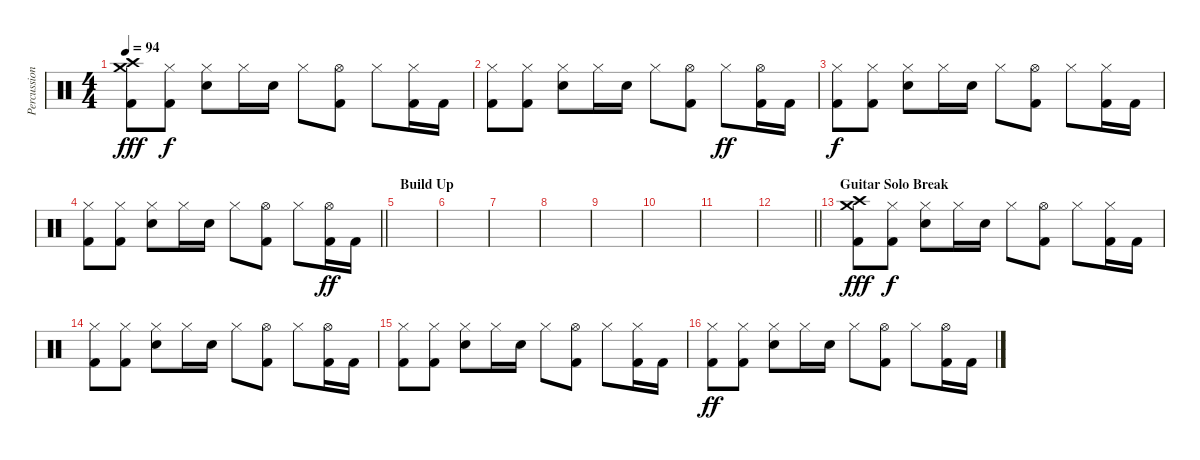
\track ("Percussion" "Percussion") {instrument percussion}
\staff {score}
\articulation defaults
\ts (4 4)
\tempo 94
\clef neutral
\ks c
("Crash high (hit)" "Crash medium (hit)" "Kick (hit) 2").8{dy fff} ("Hi-Hat (closed)" "Kick (hit) 2").8{dy f} ("Hi-Hat (closed)" "Snare (hit) 2").8 "Hi-Hat (closed)".16 "Snare (hit) 2".16 "Hi-Hat (closed)".8 ("Hi-Hat (open)" "Kick (hit) 2").8 "Hi-Hat (closed)".8 ("Hi-Hat (closed)" "Kick (hit) 2").16 "Kick (hit) 2".16 |
("Hi-Hat (closed)" "Kick (hit) 2").8 ("Hi-Hat (closed)" "Kick (hit) 2").8 ("Hi-Hat (closed)" "Snare (hit) 2").8 "Hi-Hat (closed)".16 "Snare (hit) 2".16 "Hi-Hat (closed)".8 ("Hi-Hat (open)" "Kick (hit) 2").8 "Hi-Hat (closed)".8{dy ff} ("Hi-Hat (open)" "Kick (hit) 2").16 "Kick (hit) 2".16 |
("Hi-Hat (closed)" "Kick (hit) 2").8{dy f} ("Hi-Hat (closed)" "Kick (hit) 2").8 ("Hi-Hat (closed)" "Snare (hit) 2").8 "Hi-Hat (closed)".16 "Snare (hit) 2".16 "Hi-Hat (closed)".8 ("Hi-Hat (open)" "Kick (hit) 2").8 "Hi-Hat (closed)".8 ("Hi-Hat (closed)" "Kick (hit) 2").16 "Kick (hit) 2".16 |
\barLineRight lightlight
("Hi-Hat (closed)" "Kick (hit) 2").8 ("Hi-Hat (closed)" "Kick (hit) 2").8 ("Hi-Hat (closed)" "Snare (hit) 2").8 "Hi-Hat (closed)".16 "Snare (hit) 2".16 "Hi-Hat (closed)".8 ("Hi-Hat (open)" "Kick (hit) 2").8 "Hi-Hat (closed)".8 ("Hi-Hat (open)" "Kick (hit) 2").16{dy ff} "Kick (hit) 2".16 |
\section ("" "Build Up")
|
|
|
|
|
|
|
\barLineRight lightlight
|
\section ("" "Guitar Solo Break")
("Crash high (hit)" "Crash medium (hit)" "Kick (hit) 2").8{dy fff} ("Hi-Hat (closed)" "Kick (hit) 2").8{dy f} ("Hi-Hat (closed)" "Snare (hit) 2").8 "Hi-Hat (closed)".16 "Snare (hit) 2".16 "Hi-Hat (closed)".8 ("Hi-Hat (open)" "Kick (hit) 2").8 "Hi-Hat (closed)".8 ("Hi-Hat (closed)" "Kick (hit) 2").16 "Kick (hit) 2".16 |
("Hi-Hat (closed)" "Kick (hit) 2").8 ("Hi-Hat (closed)" "Kick (hit) 2").8 ("Hi-Hat (closed)" "Snare (hit) 2").8 "Hi-Hat (closed)".16 "Snare (hit) 2".16 "Hi-Hat (closed)".8 ("Hi-Hat (open)" "Kick (hit) 2").8 "Hi-Hat (closed)".8 ("Hi-Hat (open)" "Kick (hit) 2").16 "Kick (hit) 2".16 |
("Hi-Hat (closed)" "Kick (hit) 2").8 ("Hi-Hat (closed)" "Kick (hit) 2").8 ("Hi-Hat (closed)" "Snare (hit) 2").8 "Hi-Hat (closed)".16 "Snare (hit) 2".16 "Hi-Hat (closed)".8 ("Hi-Hat (open)" "Kick (hit) 2").8 "Hi-Hat (closed)".8 ("Hi-Hat (closed)" "Kick (hit) 2").16 "Kick (hit) 2".16 |
("Hi-Hat (closed)" "Kick (hit) 2").8{dy ff} ("Hi-Hat (closed)" "Kick (hit) 2").8 ("Hi-Hat (closed)" "Snare (hit) 2").8 "Hi-Hat (closed)".16 "Snare (hit) 2".16 "Hi-Hat (closed)".8 ("Hi-Hat (open)" "Kick (hit) 2").8 "Hi-Hat (closed)".8 ("Hi-Hat (open)" "Kick (hit) 2").16 "Kick (hit) 2".16
